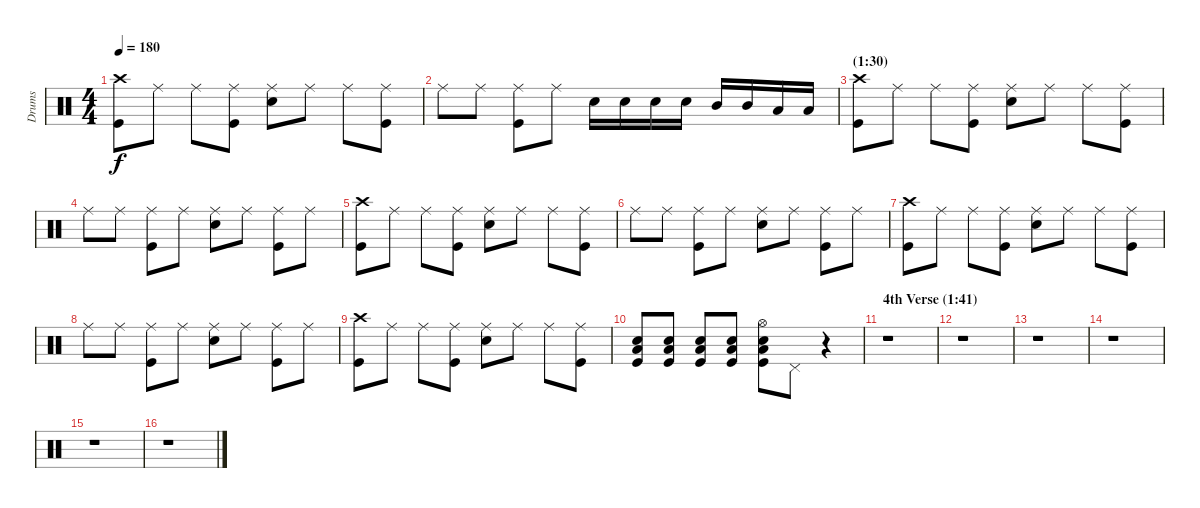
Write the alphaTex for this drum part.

\track ("Drums" "Drums") {instrument percussion}
\staff {score}
\articulation defaults
\ts (4 4)
\tempo 180
\clef neutral
\ks c
("Crash high (hit)" "Kick (hit)").8{dy f} "Ride (middle)".8 "Ride (middle)".8 ("Ride (middle)" "Kick (hit)").8 ("Ride (middle)" "Snare (hit) 2").8 "Ride (middle)".8 "Ride (middle)".8 ("Ride (middle)" "Kick (hit)").8 |
"Ride (middle)".8 "Ride (middle)".8 ("Ride (middle)" "Kick (hit)").8 "Ride (middle)".8 "Snare (hit) 2".16 "Snare (hit) 2".16 "Snare (hit) 2".16 "Snare (hit) 2".16 "Mid Tom (hit)".16 "Mid Tom (hit)".16 "Low Tom (hit)".16 "Low Tom (hit)".16 |
\section ("" "(1:30)")
("Crash high (hit)" "Kick (hit)").8 "Ride (middle)".8 "Ride (middle)".8 ("Ride (middle)" "Kick (hit)").8 ("Ride (middle)" "Snare (hit) 2").8 "Ride (middle)".8 "Ride (middle)".8 ("Ride (middle)" "Kick (hit)").8 |
"Ride (middle)".8 "Ride (middle)".8 ("Ride (middle)" "Kick (hit)").8 "Ride (middle)".8 ("Ride (middle)" "Snare (hit) 2").8 "Ride (middle)".8 ("Ride (middle)" "Kick (hit)").8 "Ride (middle)".8 |
("Crash high (hit)" "Kick (hit)").8 "Ride (middle)".8 "Ride (middle)".8 ("Ride (middle)" "Kick (hit)").8 ("Ride (middle)" "Snare (hit) 2").8 "Ride (middle)".8 "Ride (middle)".8 ("Ride (middle)" "Kick (hit)").8 |
"Ride (middle)".8 "Ride (middle)".8 ("Ride (middle)" "Kick (hit)").8 "Ride (middle)".8 ("Ride (middle)" "Snare (hit) 2").8 "Ride (middle)".8 ("Ride (middle)" "Kick (hit)").8 "Ride (middle)".8 |
("Crash high (hit)" "Kick (hit)").8 "Ride (middle)".8 "Ride (middle)".8 ("Ride (middle)" "Kick (hit)").8 ("Ride (middle)" "Snare (hit) 2").8 "Ride (middle)".8 "Ride (middle)".8 ("Ride (middle)" "Kick (hit)").8 |
"Ride (middle)".8 "Ride (middle)".8 ("Ride (middle)" "Kick (hit)").8 "Ride (middle)".8 ("Ride (middle)" "Snare (hit) 2").8 "Ride (middle)".8 ("Ride (middle)" "Kick (hit)").8 "Ride (middle)".8 |
("Crash high (hit)" "Kick (hit)").8 "Ride (middle)".8 "Ride (middle)".8 ("Ride (middle)" "Kick (hit)").8 ("Ride (middle)" "Snare (hit) 2").8 "Ride (middle)".8 "Ride (middle)".8 ("Ride (middle)" "Kick (hit)").8 |
("Snare (hit) 2" "Low Floor Tom (hit)" "Kick (hit)").8 ("Snare (hit) 2" "Low Floor Tom (hit)" "Kick (hit)").8 ("Snare (hit) 2" "Low Floor Tom (hit)" "Kick (hit)").8 ("Snare (hit) 2" "Low Floor Tom (hit)" "Kick (hit)").8 ("Hi-Hat (open)" "Snare (hit) 2" "Low Floor Tom (hit)" "Kick (hit)").8 "Pedal Hi-Hat (hit)".8 r.4 |
\section ("" "4th Verse (1:41)")
r.1 |
r.1 |
r.1 |
r.1 |
r.1 |
r.1
